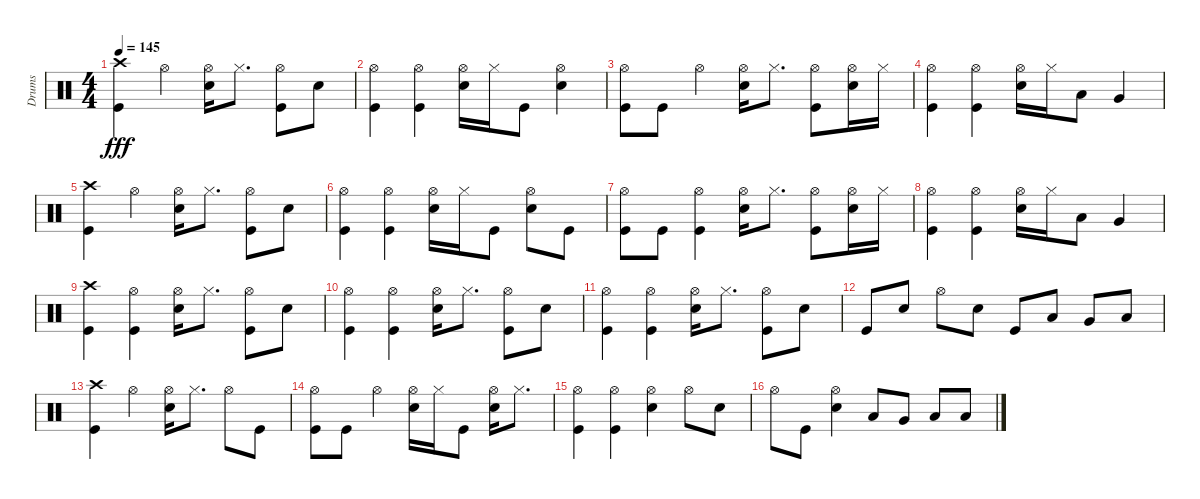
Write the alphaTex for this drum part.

\track ("Drums" "Drums") {instrument percussion}
\staff {score}
\articulation defaults
\ts (4 4)
\tempo 145
\clef neutral
\ks c
("Crash high (hit)" "Kick (hit)").4{dy fff} "Hi-Hat (open)".4 ("Hi-Hat (open)" "Snare (hit) 2").16 "Hi-Hat (closed)".8{d} ("Hi-Hat (open)" "Kick (hit)").8 "Snare (hit) 2".8 |
("Hi-Hat (open)" "Kick (hit)").4 ("Hi-Hat (open)" "Kick (hit)").4 ("Hi-Hat (open)" "Snare (hit) 2").16 "Hi-Hat (closed)".16 "Kick (hit)".8 ("Hi-Hat (open)" "Snare (hit) 2").4 |
("Hi-Hat (open)" "Kick (hit)").8 "Kick (hit)".8 "Hi-Hat (open)".4 ("Hi-Hat (open)" "Snare (hit) 2").16 "Hi-Hat (closed)".8{d} ("Hi-Hat (open)" "Kick (hit)").8 ("Hi-Hat (open)" "Snare (hit) 2").16 "Hi-Hat (closed)".16 |
("Hi-Hat (open)" "Kick (hit)").4 ("Hi-Hat (open)" "Kick (hit)").4 ("Hi-Hat (open)" "Snare (hit) 2").16 "Hi-Hat (closed)".16 "Low Tom (hit)".8 "Very Low Tom (hit)".4 |
("Crash high (hit)" "Kick (hit)").4 "Hi-Hat (open)".4 ("Hi-Hat (open)" "Snare (hit) 2").16 "Hi-Hat (closed)".8{d} ("Hi-Hat (open)" "Kick (hit)").8 "Snare (hit) 2".8 |
("Hi-Hat (open)" "Kick (hit)").4 ("Hi-Hat (open)" "Kick (hit)").4 ("Hi-Hat (open)" "Snare (hit) 2").16 "Hi-Hat (closed)".16 "Kick (hit)".8 ("Hi-Hat (open)" "Snare (hit) 2").8 "Kick (hit)".8 |
("Hi-Hat (open)" "Kick (hit)").8 "Kick (hit)".8 ("Hi-Hat (open)" "Kick (hit)").4 ("Hi-Hat (open)" "Snare (hit) 2").16 "Hi-Hat (closed)".8{d} ("Hi-Hat (open)" "Kick (hit)").8 ("Hi-Hat (open)" "Snare (hit) 2").16 "Hi-Hat (closed)".16 |
("Hi-Hat (open)" "Kick (hit)").4 ("Hi-Hat (open)" "Kick (hit)").4 ("Hi-Hat (open)" "Snare (hit) 2").16 "Hi-Hat (closed)".16 "Low Tom (hit)".8 "Very Low Tom (hit)".4 |
("Crash high (hit)" "Kick (hit)").4 ("Hi-Hat (open)" "Kick (hit)").4 ("Hi-Hat (open)" "Snare (hit) 2").16 "Hi-Hat (closed)".8{d} ("Hi-Hat (open)" "Kick (hit)").8 "Snare (hit) 2".8 |
("Hi-Hat (open)" "Kick (hit)").4 ("Hi-Hat (open)" "Kick (hit)").4 ("Hi-Hat (open)" "Snare (hit) 2").16 "Hi-Hat (closed)".8{d} ("Hi-Hat (open)" "Kick (hit)").8 "Snare (hit) 2".8 |
("Hi-Hat (open)" "Kick (hit)").4 ("Hi-Hat (open)" "Kick (hit)").4 ("Hi-Hat (open)" "Snare (hit) 2").16 "Hi-Hat (closed)".8{d} ("Hi-Hat (open)" "Kick (hit)").8 "Snare (hit) 2".8 |
"Kick (hit)".8 "Snare (hit) 2".8 "Hi-Hat (open)".8 "Snare (hit) 2".8 "Kick (hit)".8 "Low Tom (hit)".8 "Very Low Tom (hit)".8 "Low Floor Tom (hit)".8 |
("Crash high (hit)" "Kick (hit)").4 "Hi-Hat (open)".4 ("Hi-Hat (open)" "Snare (hit) 2").16 "Hi-Hat (closed)".8{d} "Hi-Hat (open)".8 "Kick (hit)".8 |
("Hi-Hat (open)" "Kick (hit)").8 "Kick (hit)".8 "Hi-Hat (open)".4 ("Hi-Hat (open)" "Snare (hit) 2").16 "Hi-Hat (closed)".16 "Kick (hit)".8 ("Hi-Hat (open)" "Snare (hit) 2").16 "Hi-Hat (closed)".8{d} |
("Hi-Hat (open)" "Kick (hit)").4 ("Hi-Hat (open)" "Kick (hit)").4 ("Hi-Hat (open)" "Snare (hit) 2").4 "Hi-Hat (open)".8 "Snare (hit) 2".8 |
"Hi-Hat (open)".8 "Kick (hit)".8 ("Hi-Hat (open)" "Snare (hit) 2").4 "Low Tom (hit)".8 "Very Low Tom (hit)".8 "Low Floor Tom (hit)".8 "Low Floor Tom (hit)".8
